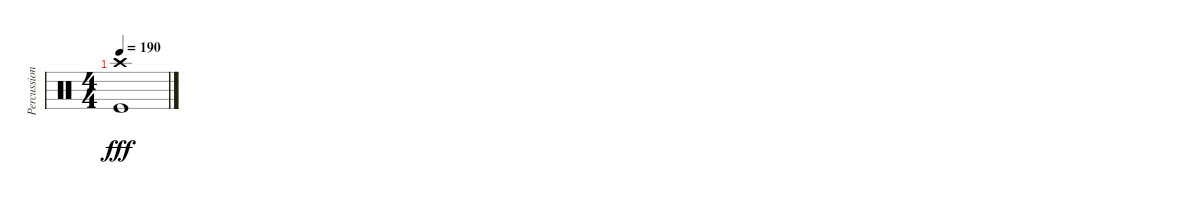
\track ("Percussioni" "Percussion") {instrument percussion}
\staff {score}
\articulation defaults
\ts (4 4)
\tempo 190
\clef neutral
\ks c
("Crash high (hit)" "Kick (hit)").1{dy fff}
